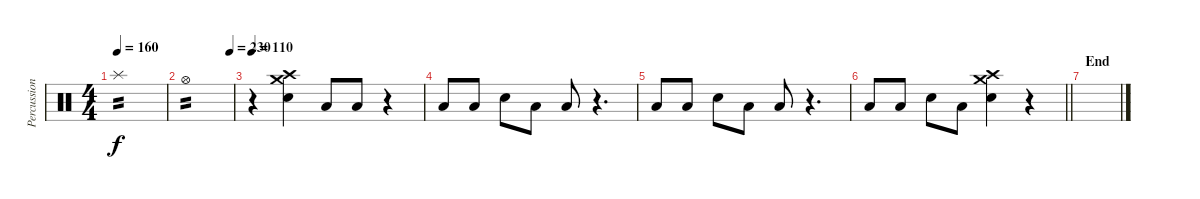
\track ("Percussion" "Percussion") {instrument percussion}
\staff {score}
\articulation defaults
\ts (4 4)
\tempo 160
\clef neutral
\ks c "Splash (hit)".1{tp 2 dy f}
|
\tempo (230 0.9375)
"Hi-Hat (open)".1{tp 2} |
\tempo 110
r.4 ("Crash medium (hit)" "Crash high (hit)" "Snare (hit) 2").4 "Low Tom (hit)".8 "Low Tom (hit)".8 r.4 |
"Low Tom (hit)".8 "Low Tom (hit)".8 "Snare (hit) 2".8 "Low Tom (hit)".8 "Low Tom (hit)".8 r.4{d} |
"Low Tom (hit)".8 "Low Tom (hit)".8 "Snare (hit) 2".8 "Low Tom (hit)".8 "Low Tom (hit)".8 r.4{d} |
\barLineRight lightlight "Low Tom (hit)".8 "Low Tom (hit)".8 "Snare (hit) 2".8 "Low Tom (hit)".8
("Crash medium (hit)" "Crash high (hit)" "Snare (hit) 2").4 r.4 |
\section ("" "End")
